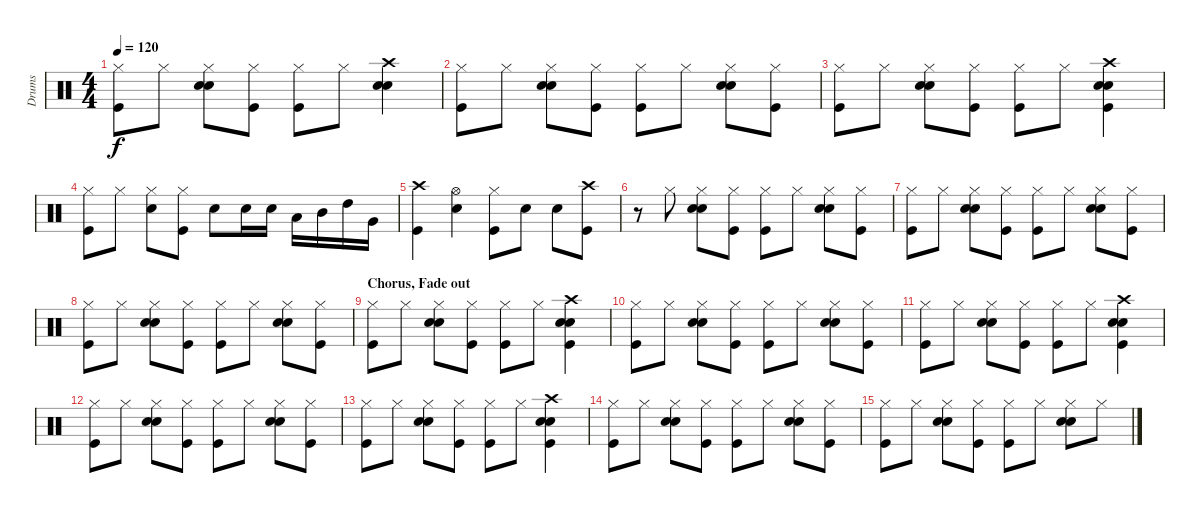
\track ("Drums" "Drums") {instrument percussion}
\staff {score}
\articulation defaults
\ts (4 4)
\tempo 120
\clef neutral
\ks c
("Hi-Hat (closed)" "Kick (hit)").8{dy f} "Hi-Hat (closed)".8 ("Hi-Hat (closed)" "Snare (hit) 2" "Hand Clap (hit)").8 ("Hi-Hat (closed)" "Kick (hit)").8 ("Hi-Hat (closed)" "Kick (hit)").8 "Hi-Hat (closed)".8 ("Crash high (hit)" "Snare (hit) 2" "Hand Clap (hit)").4 |
("Hi-Hat (closed)" "Kick (hit)").8 "Hi-Hat (closed)".8 ("Hi-Hat (closed)" "Snare (hit) 2" "Hand Clap (hit)").8 ("Hi-Hat (closed)" "Kick (hit)").8 ("Hi-Hat (closed)" "Kick (hit)").8 "Hi-Hat (closed)".8 ("Hi-Hat (closed)" "Snare (hit) 2" "Hand Clap (hit)").8 ("Hi-Hat (closed)" "Kick (hit)").8 |
("Hi-Hat (closed)" "Kick (hit)").8 "Hi-Hat (closed)".8 ("Hi-Hat (closed)" "Snare (hit) 2" "Hand Clap (hit)").8 ("Hi-Hat (closed)" "Kick (hit)").8 ("Hi-Hat (closed)" "Kick (hit)").8 "Hi-Hat (closed)".8 ("Crash high (hit)" "Snare (hit) 2" "Hand Clap (hit)" "Kick (hit)").4 |
("Hi-Hat (closed)" "Kick (hit)").8 "Hi-Hat (closed)".8 ("Hi-Hat (closed)" "Snare (hit) 2").8 ("Hi-Hat (closed)" "Kick (hit)").8 "Snare (hit) 2".8 "Snare (hit) 2".16 "Snare (hit) 2".16 "Low Tom (hit)".16 "Mid Tom (hit)".16 "High Tom (hit)".16 "Very Low Tom (hit)".16 |
("Crash high (hit)" "Kick (hit)").4 ("Hi-Hat (open)" "Snare (hit) 2").4 ("Hi-Hat (closed)" "Kick (hit)").8 "Snare (hit) 2".8 "Snare (hit) 2".8 ("Crash high (hit)" "Kick (hit)").8 |
r.8 "Hi-Hat (closed)".8 ("Hi-Hat (closed)" "Snare (hit) 2" "Hand Clap (hit)").8 ("Hi-Hat (closed)" "Kick (hit)").8 ("Hi-Hat (closed)" "Kick (hit)").8 "Hi-Hat (closed)".8 ("Hi-Hat (closed)" "Snare (hit) 2" "Hand Clap (hit)").8 ("Hi-Hat (closed)" "Kick (hit)").8 |
("Hi-Hat (closed)" "Kick (hit)").8 "Hi-Hat (closed)".8 ("Hi-Hat (closed)" "Snare (hit) 2" "Hand Clap (hit)").8 ("Hi-Hat (closed)" "Kick (hit)").8 ("Hi-Hat (closed)" "Kick (hit)").8 "Hi-Hat (closed)".8 ("Hi-Hat (closed)" "Snare (hit) 2" "Hand Clap (hit)").8 ("Hi-Hat (closed)" "Kick (hit)").8 |
("Hi-Hat (closed)" "Kick (hit)").8 "Hi-Hat (closed)".8 ("Hi-Hat (closed)" "Snare (hit) 2" "Hand Clap (hit)").8 ("Hi-Hat (closed)" "Kick (hit)").8 ("Hi-Hat (closed)" "Kick (hit)").8 "Hi-Hat (closed)".8 ("Hi-Hat (closed)" "Snare (hit) 2" "Hand Clap (hit)").8 ("Hi-Hat (closed)" "Kick (hit)").8 |
\section ("" "Chorus, Fade out")
("Hi-Hat (closed)" "Kick (hit)").8 "Hi-Hat (closed)".8 ("Hi-Hat (closed)" "Snare (hit) 2" "Hand Clap (hit)").8 ("Hi-Hat (closed)" "Kick (hit)").8 ("Hi-Hat (closed)" "Kick (hit)").8 "Hi-Hat (closed)".8 ("Crash high (hit)" "Snare (hit) 2" "Hand Clap (hit)" "Kick (hit)").4 |
("Hi-Hat (closed)" "Kick (hit)").8 "Hi-Hat (closed)".8 ("Hi-Hat (closed)" "Snare (hit) 2" "Hand Clap (hit)").8 ("Hi-Hat (closed)" "Kick (hit)").8 ("Hi-Hat (closed)" "Kick (hit)").8 "Hi-Hat (closed)".8 ("Hi-Hat (closed)" "Snare (hit) 2" "Hand Clap (hit)").8 ("Hi-Hat (closed)" "Kick (hit)").8 |
("Hi-Hat (closed)" "Kick (hit)").8 "Hi-Hat (closed)".8 ("Hi-Hat (closed)" "Snare (hit) 2" "Hand Clap (hit)").8 ("Hi-Hat (closed)" "Kick (hit)").8 ("Hi-Hat (closed)" "Kick (hit)").8 "Hi-Hat (closed)".8 ("Crash high (hit)" "Snare (hit) 2" "Hand Clap (hit)" "Kick (hit)").4 |
("Hi-Hat (closed)" "Kick (hit)").8 "Hi-Hat (closed)".8 ("Hi-Hat (closed)" "Snare (hit) 2" "Hand Clap (hit)").8 ("Hi-Hat (closed)" "Kick (hit)").8 ("Hi-Hat (closed)" "Kick (hit)").8 "Hi-Hat (closed)".8 ("Hi-Hat (closed)" "Snare (hit) 2" "Hand Clap (hit)").8 ("Hi-Hat (closed)" "Kick (hit)").8 |
("Hi-Hat (closed)" "Kick (hit)").8 "Hi-Hat (closed)".8 ("Hi-Hat (closed)" "Snare (hit) 2" "Hand Clap (hit)").8 ("Hi-Hat (closed)" "Kick (hit)").8 ("Hi-Hat (closed)" "Kick (hit)").8 "Hi-Hat (closed)".8 ("Crash high (hit)" "Snare (hit) 2" "Hand Clap (hit)" "Kick (hit)").4 |
("Hi-Hat (closed)" "Kick (hit)").8 "Hi-Hat (closed)".8 ("Hi-Hat (closed)" "Snare (hit) 2" "Hand Clap (hit)").8 ("Hi-Hat (closed)" "Kick (hit)").8 ("Hi-Hat (closed)" "Kick (hit)").8 "Hi-Hat (closed)".8 ("Hi-Hat (closed)" "Snare (hit) 2" "Hand Clap (hit)").8 ("Hi-Hat (closed)" "Kick (hit)").8 |
("Hi-Hat (closed)" "Kick (hit)").8 "Hi-Hat (closed)".8 ("Hi-Hat (closed)" "Snare (hit) 2" "Hand Clap (hit)").8 ("Hi-Hat (closed)" "Kick (hit)").8 ("Hi-Hat (closed)" "Kick (hit)").8 "Hi-Hat (closed)".8 ("Hi-Hat (closed)" "Snare (hit) 2" "Hand Clap (hit)").8 "Hi-Hat (closed)".8
